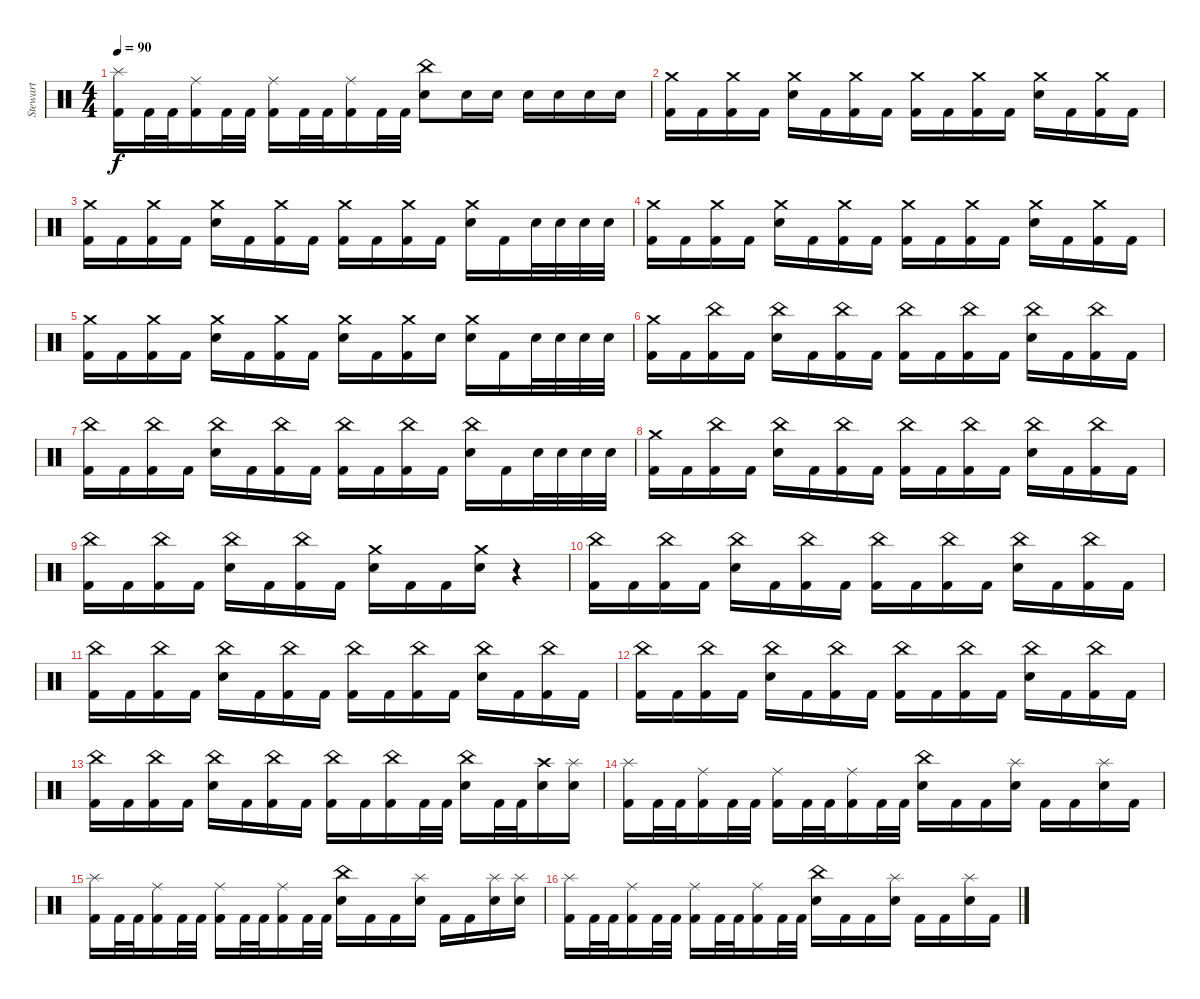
\track ("Stewart" "Stewart") {instrument percussion}
\staff {score}
\articulation defaults
\ts (4 4)
\tempo 90
\clef neutral
\ks c
("Splash (hit)" "Kick (hit) 2").16{dy f} "Kick (hit) 2".32 "Kick (hit) 2".32 ("Ride (middle)" "Kick (hit) 2").16 "Kick (hit) 2".32 "Kick (hit) 2".32 ("Ride (middle)" "Kick (hit) 2").16 "Kick (hit) 2".32 "Kick (hit) 2".32 ("Ride (middle)" "Kick (hit) 2").16 "Kick (hit) 2".32 "Kick (hit) 2".32 ("China (hit)" "Electric Snare (hit)").8 "Electric Snare (hit)".16 "Electric Snare (hit)".16 "Electric Snare (hit)".16 "Electric Snare (hit)".16 "Electric Snare (hit)".16 "Electric Snare (hit)".16 |
("Crash medium (hit)" "Kick (hit) 2").16 "Kick (hit) 2".16 ("Crash medium (hit)" "Kick (hit) 2").16 "Kick (hit) 2".16 ("Crash medium (hit)" "Electric Snare (hit)").16 "Kick (hit) 2".16 ("Crash medium (hit)" "Kick (hit) 2").16 "Kick (hit) 2".16 ("Crash medium (hit)" "Kick (hit) 2").16 "Kick (hit) 2".16 ("Crash medium (hit)" "Kick (hit) 2").16 "Kick (hit) 2".16 ("Crash medium (hit)" "Electric Snare (hit)").16 "Kick (hit) 2".16 ("Crash medium (hit)" "Kick (hit) 2").16 "Kick (hit) 2".16 |
("Crash medium (hit)" "Kick (hit) 2").16 "Kick (hit) 2".16 ("Crash medium (hit)" "Kick (hit) 2").16 "Kick (hit) 2".16 ("Crash medium (hit)" "Electric Snare (hit)").16 "Kick (hit) 2".16 ("Crash medium (hit)" "Kick (hit) 2").16 "Kick (hit) 2".16 ("Crash medium (hit)" "Kick (hit) 2").16 "Kick (hit) 2".16 ("Crash medium (hit)" "Kick (hit) 2").16 "Kick (hit) 2".16 ("Crash medium (hit)" "Electric Snare (hit)").16 "Kick (hit) 2".16 "Electric Snare (hit)".32 "Electric Snare (hit)".32 "Electric Snare (hit)".32 "Electric Snare (hit)".32 |
("Crash medium (hit)" "Kick (hit) 2").16 "Kick (hit) 2".16 ("Crash medium (hit)" "Kick (hit) 2").16 "Kick (hit) 2".16 ("Crash medium (hit)" "Electric Snare (hit)").16 "Kick (hit) 2".16 ("Crash medium (hit)" "Kick (hit) 2").16 "Kick (hit) 2".16 ("Crash medium (hit)" "Kick (hit) 2").16 "Kick (hit) 2".16 ("Crash medium (hit)" "Kick (hit) 2").16 "Kick (hit) 2".16 ("Crash medium (hit)" "Electric Snare (hit)").16 "Kick (hit) 2".16 ("Crash medium (hit)" "Kick (hit) 2").16 "Kick (hit) 2".16 |
("Crash medium (hit)" "Kick (hit) 2").16 "Kick (hit) 2".16 ("Crash medium (hit)" "Kick (hit) 2").16 "Kick (hit) 2".16 ("Crash medium (hit)" "Electric Snare (hit)").16 "Kick (hit) 2".16 ("Crash medium (hit)" "Kick (hit) 2").16 "Kick (hit) 2".16 ("Crash medium (hit)" "Electric Snare (hit)").16 "Kick (hit) 2".16 ("Crash medium (hit)" "Kick (hit) 2").16 "Electric Snare (hit)".16 ("Crash medium (hit)" "Electric Snare (hit)").16 "Kick (hit) 2".16 "Electric Snare (hit)".32 "Electric Snare (hit)".32 "Electric Snare (hit)".32 "Electric Snare (hit)".32 |
("Crash medium (hit)" "Kick (hit) 2").16 "Kick (hit) 2".16 ("China (hit)" "Kick (hit) 2").16 "Kick (hit) 2".16 ("China (hit)" "Electric Snare (hit)").16 "Kick (hit) 2".16 ("China (hit)" "Kick (hit) 2").16 "Kick (hit) 2".16 ("China (hit)" "Kick (hit) 2").16 "Kick (hit) 2".16 ("China (hit)" "Kick (hit) 2").16 "Kick (hit) 2".16 ("China (hit)" "Electric Snare (hit)").16 "Kick (hit) 2".16 ("China (hit)" "Kick (hit) 2").16 "Kick (hit) 2".16 |
("China (hit)" "Kick (hit) 2").16 "Kick (hit) 2".16 ("China (hit)" "Kick (hit) 2").16 "Kick (hit) 2".16 ("China (hit)" "Electric Snare (hit)").16 "Kick (hit) 2".16 ("China (hit)" "Kick (hit) 2").16 "Kick (hit) 2".16 ("China (hit)" "Kick (hit) 2").16 "Kick (hit) 2".16 ("China (hit)" "Kick (hit) 2").16 "Kick (hit) 2".16 ("China (hit)" "Electric Snare (hit)").16 "Kick (hit) 2".16 "Electric Snare (hit)".32 "Electric Snare (hit)".32 "Electric Snare (hit)".32 "Electric Snare (hit)".32 |
("Crash medium (hit)" "Kick (hit) 2").16 "Kick (hit) 2".16 ("China (hit)" "Kick (hit) 2").16 "Kick (hit) 2".16 ("China (hit)" "Electric Snare (hit)").16 "Kick (hit) 2".16 ("China (hit)" "Kick (hit) 2").16 "Kick (hit) 2".16 ("China (hit)" "Kick (hit) 2").16 "Kick (hit) 2".16 ("China (hit)" "Kick (hit) 2").16 "Kick (hit) 2".16 ("China (hit)" "Electric Snare (hit)").16 "Kick (hit) 2".16 ("China (hit)" "Kick (hit) 2").16 "Kick (hit) 2".16 |
("China (hit)" "Kick (hit) 2").16 "Kick (hit) 2".16 ("China (hit)" "Kick (hit) 2").16 "Kick (hit) 2".16 ("China (hit)" "Electric Snare (hit)").16 "Kick (hit) 2".16 ("China (hit)" "Kick (hit) 2").16 "Kick (hit) 2".16 ("Crash medium (hit)" "Electric Snare (hit)").16 "Kick (hit) 2".16 "Kick (hit) 2".16 ("Crash medium (hit)" "Electric Snare (hit)").16 r.4 |
("China (hit)" "Kick (hit) 2").16 "Kick (hit) 2".16 ("China (hit)" "Kick (hit) 2").16 "Kick (hit) 2".16 ("China (hit)" "Electric Snare (hit)").16 "Kick (hit) 2".16 ("China (hit)" "Kick (hit) 2").16 "Kick (hit) 2".16 ("China (hit)" "Kick (hit) 2").16 "Kick (hit) 2".16 ("China (hit)" "Kick (hit) 2").16 "Kick (hit) 2".16 ("China (hit)" "Electric Snare (hit)").16 "Kick (hit) 2".16 ("China (hit)" "Kick (hit) 2").16 "Kick (hit) 2".16 |
("China (hit)" "Kick (hit) 2").16 "Kick (hit) 2".16 ("China (hit)" "Kick (hit) 2").16 "Kick (hit) 2".16 ("China (hit)" "Electric Snare (hit)").16 "Kick (hit) 2".16 ("China (hit)" "Kick (hit) 2").16 "Kick (hit) 2".16 ("China (hit)" "Kick (hit) 2").16 "Kick (hit) 2".16 ("China (hit)" "Kick (hit) 2").16 "Kick (hit) 2".16 ("China (hit)" "Electric Snare (hit)").16 "Kick (hit) 2".16 ("China (hit)" "Kick (hit) 2").16 "Kick (hit) 2".16 |
("China (hit)" "Kick (hit) 2").16 "Kick (hit) 2".16 ("China (hit)" "Kick (hit) 2").16 "Kick (hit) 2".16 ("China (hit)" "Electric Snare (hit)").16 "Kick (hit) 2".16 ("China (hit)" "Kick (hit) 2").16 "Kick (hit) 2".16 ("China (hit)" "Kick (hit) 2").16 "Kick (hit) 2".16 ("China (hit)" "Kick (hit) 2").16 "Kick (hit) 2".16 ("China (hit)" "Electric Snare (hit)").16 "Kick (hit) 2".16 ("China (hit)" "Kick (hit) 2").16 "Kick (hit) 2".16 |
("China (hit)" "Kick (hit) 2").16 "Kick (hit) 2".16 ("China (hit)" "Kick (hit) 2").16 "Kick (hit) 2".16 ("China (hit)" "Electric Snare (hit)").16 "Kick (hit) 2".16 ("China (hit)" "Kick (hit) 2").16 "Kick (hit) 2".16 ("China (hit)" "Kick (hit) 2").16 "Kick (hit) 2".16 ("China (hit)" "Kick (hit) 2").16 "Kick (hit) 2".32 "Kick (hit) 2".32 ("China (hit)" "Electric Snare (hit)").16 "Kick (hit) 2".32 "Kick (hit) 2".32 ("Crash high (hit)" "Electric Snare (hit)").16 ("Splash (hit)" "Electric Snare (hit)").16 |
("Splash (hit)" "Kick (hit) 2").16 "Kick (hit) 2".32 "Kick (hit) 2".32 ("Ride (middle)" "Kick (hit) 2").16 "Kick (hit) 2".32 "Kick (hit) 2".32 ("Ride (middle)" "Kick (hit) 2").16 "Kick (hit) 2".32 "Kick (hit) 2".32 ("Ride (middle)" "Kick (hit) 2").16 "Kick (hit) 2".32 "Kick (hit) 2".32 ("China (hit)" "Electric Snare (hit)").16 "Kick (hit) 2".16 "Kick (hit) 2".16 ("Splash (hit)" "Electric Snare (hit)").16 "Kick (hit) 2".16 "Kick (hit) 2".16 ("Splash (hit)" "Electric Snare (hit)").16 "Kick (hit) 2".16 |
("Splash (hit)" "Kick (hit) 2").16 "Kick (hit) 2".32 "Kick (hit) 2".32 ("Ride (middle)" "Kick (hit) 2").16 "Kick (hit) 2".32 "Kick (hit) 2".32 ("Ride (middle)" "Kick (hit) 2").16 "Kick (hit) 2".32 "Kick (hit) 2".32 ("Ride (middle)" "Kick (hit) 2").16 "Kick (hit) 2".32 "Kick (hit) 2".32 ("China (hit)" "Electric Snare (hit)").16 "Kick (hit) 2".16 "Kick (hit) 2".16 ("Splash (hit)" "Electric Snare (hit)").16 "Kick (hit) 2".16 "Kick (hit) 2".16 ("Splash (hit)" "Electric Snare (hit)").16 ("Splash (hit)" "Electric Snare (hit)").16 |
("Splash (hit)" "Kick (hit) 2").16 "Kick (hit) 2".32 "Kick (hit) 2".32 ("Ride (middle)" "Kick (hit) 2").16 "Kick (hit) 2".32 "Kick (hit) 2".32 ("Ride (middle)" "Kick (hit) 2").16 "Kick (hit) 2".32 "Kick (hit) 2".32 ("Ride (middle)" "Kick (hit) 2").16 "Kick (hit) 2".32 "Kick (hit) 2".32 ("China (hit)" "Electric Snare (hit)").16 "Kick (hit) 2".16 "Kick (hit) 2".16 ("Splash (hit)" "Electric Snare (hit)").16 "Kick (hit) 2".16 "Kick (hit) 2".16 ("Splash (hit)" "Electric Snare (hit)").16 "Kick (hit) 2".16
